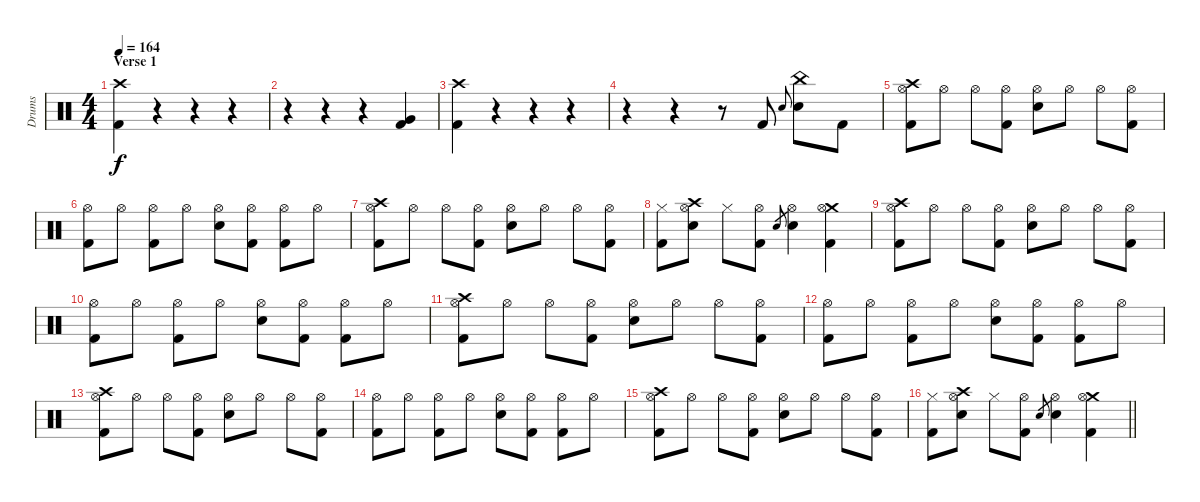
\track ("Drums" "Drums") {instrument percussion}
\staff {score}
\articulation defaults
\ts (4 4)
\section ("" "Verse 1")
\tempo 164
\clef neutral
\ks c
("Crash high (hit)" "Kick (hit) 2").4{dy f} r.4 r.4 r.4 |
r.4 r.4 r.4 ("Very Low Tom (hit)" "Kick (hit) 2").4 |
("Crash high (hit)" "Kick (hit) 2").4 r.4 r.4 r.4 |
r.4 r.4 r.8 "Kick (hit) 2".8 "Snare (hit) 2".8{gr onbeat} ("China (hit)" "Snare (hit) 2").8 "Kick (hit) 2".8 |
("Crash high (hit)" "Hi-Hat (open)" "Kick (hit) 2").8 "Hi-Hat (open)".8 "Hi-Hat (open)".8 ("Hi-Hat (open)" "Kick (hit) 2").8 ("Hi-Hat (open)" "Snare (hit) 2").8 "Hi-Hat (open)".8 "Hi-Hat (open)".8 ("Hi-Hat (open)" "Kick (hit) 2").8 |
("Hi-Hat (open)" "Kick (hit) 2").8 "Hi-Hat (open)".8 ("Hi-Hat (open)" "Kick (hit) 2").8 "Hi-Hat (open)".8 ("Hi-Hat (open)" "Snare (hit) 2").8 ("Hi-Hat (open)" "Kick (hit) 2").8 ("Hi-Hat (open)" "Kick (hit) 2").8 "Hi-Hat (open)".8 |
("Crash high (hit)" "Hi-Hat (open)" "Kick (hit) 2").8 "Hi-Hat (open)".8 "Hi-Hat (open)".8 ("Hi-Hat (open)" "Kick (hit) 2").8 ("Hi-Hat (open)" "Snare (hit) 2").8 "Hi-Hat (open)".8 "Hi-Hat (open)".8 ("Hi-Hat (open)" "Kick (hit) 2").8 |
("Hi-Hat (closed)" "Kick (hit) 2").8 ("Crash high (hit)" "Hi-Hat (open)" "Snare (hit) 2").8 "Hi-Hat (closed)".8 ("Hi-Hat (open)" "Kick (hit) 2").8 "Snare (hit) 2".8{gr} ("Hi-Hat (open)" "Snare (hit) 2").4 ("Crash medium (hit)" "Hi-Hat (open)" "Kick (hit) 2").4 |
("Crash high (hit)" "Hi-Hat (open)" "Kick (hit) 2").8 "Hi-Hat (open)".8 "Hi-Hat (open)".8 ("Hi-Hat (open)" "Kick (hit) 2").8 ("Hi-Hat (open)" "Snare (hit) 2").8 "Hi-Hat (open)".8 "Hi-Hat (open)".8 ("Hi-Hat (open)" "Kick (hit) 2").8 |
("Hi-Hat (open)" "Kick (hit) 2").8 "Hi-Hat (open)".8 ("Hi-Hat (open)" "Kick (hit) 2").8 "Hi-Hat (open)".8 ("Hi-Hat (open)" "Snare (hit) 2").8 ("Hi-Hat (open)" "Kick (hit) 2").8 ("Hi-Hat (open)" "Kick (hit) 2").8 "Hi-Hat (open)".8 |
("Crash high (hit)" "Hi-Hat (open)" "Kick (hit) 2").8 "Hi-Hat (open)".8 "Hi-Hat (open)".8 ("Hi-Hat (open)" "Kick (hit) 2").8 ("Hi-Hat (open)" "Snare (hit) 2").8 "Hi-Hat (open)".8 "Hi-Hat (open)".8 ("Hi-Hat (open)" "Kick (hit) 2").8 |
("Hi-Hat (open)" "Kick (hit) 2").8 "Hi-Hat (open)".8 ("Hi-Hat (open)" "Kick (hit) 2").8 "Hi-Hat (open)".8 ("Hi-Hat (open)" "Snare (hit) 2").8 ("Hi-Hat (open)" "Kick (hit) 2").8 ("Hi-Hat (open)" "Kick (hit) 2").8 "Hi-Hat (open)".8 |
("Crash high (hit)" "Hi-Hat (open)" "Kick (hit) 2").8 "Hi-Hat (open)".8 "Hi-Hat (open)".8 ("Hi-Hat (open)" "Kick (hit) 2").8 ("Hi-Hat (open)" "Snare (hit) 2").8 "Hi-Hat (open)".8 "Hi-Hat (open)".8 ("Hi-Hat (open)" "Kick (hit) 2").8 |
("Hi-Hat (open)" "Kick (hit) 2").8 "Hi-Hat (open)".8 ("Hi-Hat (open)" "Kick (hit) 2").8 "Hi-Hat (open)".8 ("Hi-Hat (open)" "Snare (hit) 2").8 ("Hi-Hat (open)" "Kick (hit) 2").8 ("Hi-Hat (open)" "Kick (hit) 2").8 "Hi-Hat (open)".8 |
("Crash high (hit)" "Hi-Hat (open)" "Kick (hit) 2").8 "Hi-Hat (open)".8 "Hi-Hat (open)".8 ("Hi-Hat (open)" "Kick (hit) 2").8 ("Hi-Hat (open)" "Snare (hit) 2").8 "Hi-Hat (open)".8 "Hi-Hat (open)".8 ("Hi-Hat (open)" "Kick (hit) 2").8 |
\barLineRight lightlight
("Hi-Hat (closed)" "Kick (hit) 2").8 ("Crash high (hit)" "Hi-Hat (open)" "Snare (hit) 2").8 "Hi-Hat (closed)".8 ("Hi-Hat (open)" "Kick (hit) 2").8 "Snare (hit) 2".8{gr} ("Hi-Hat (open)" "Snare (hit) 2").4 ("Crash medium (hit)" "Hi-Hat (open)" "Kick (hit) 2").4
